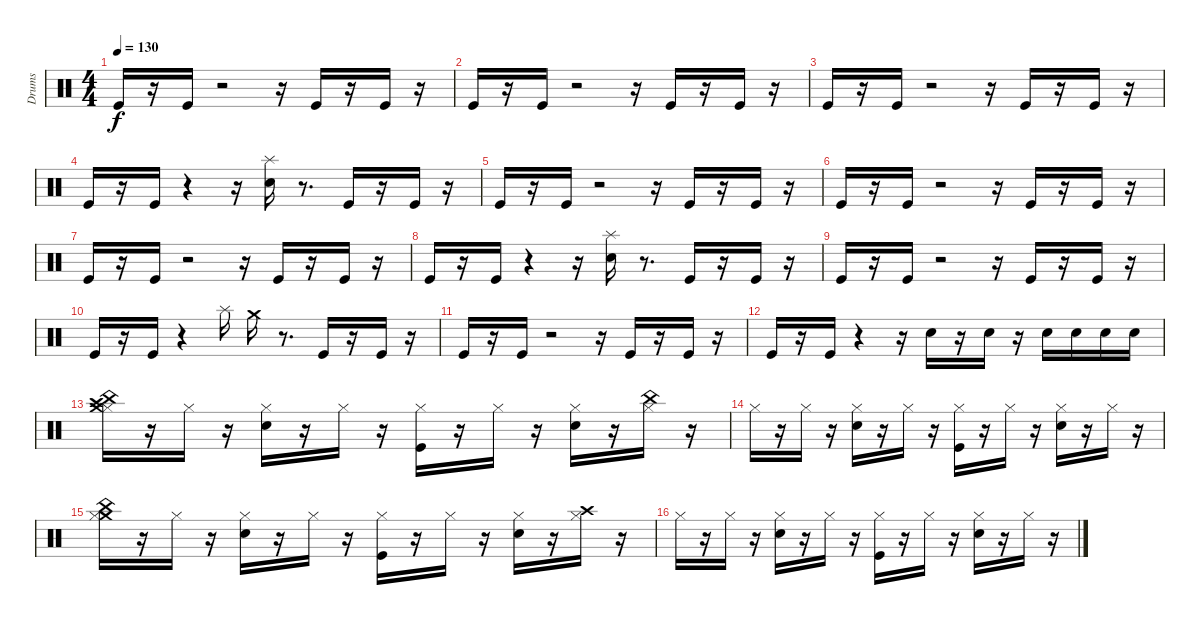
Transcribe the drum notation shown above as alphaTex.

\track ("Drums" "Drums") {instrument percussion}
\staff {score}
\articulation defaults
\ts (4 4)
\tempo 130
\clef neutral
\ks c "Kick (hit)".16{dy f}
r.16 "Kick (hit)".16 r.2 r.16 "Kick (hit)".16 r.16 "Kick (hit)".16 r.16 |
"Kick (hit)".16 r.16 "Kick (hit)".16 r.2 r.16 "Kick (hit)".16 r.16 "Kick (hit)".16 r.16 |
"Kick (hit)".16 r.16 "Kick (hit)".16 r.2 r.16 "Kick (hit)".16 r.16 "Kick (hit)".16 r.16 |
"Kick (hit)".16 r.16 "Kick (hit)".16 r.4 r.16 ("Electric Snare (hit)" "Splash (hit)").16 r.8{d} "Kick (hit)".16 r.16 "Kick (hit)".16 r.16 |
"Kick (hit)".16 r.16 "Kick (hit)".16 r.2 r.16 "Kick (hit)".16 r.16 "Kick (hit)".16 r.16 |
"Kick (hit)".16 r.16 "Kick (hit)".16 r.2 r.16 "Kick (hit)".16 r.16 "Kick (hit)".16 r.16 |
"Kick (hit)".16 r.16 "Kick (hit)".16 r.2 r.16 "Kick (hit)".16 r.16 "Kick (hit)".16 r.16 |
"Kick (hit)".16 r.16 "Kick (hit)".16 r.4 r.16 ("Electric Snare (hit)" "Splash (hit)").16 r.8{d} "Kick (hit)".16 r.16 "Kick (hit)".16 r.16 |
"Kick (hit)".16 r.16 "Kick (hit)".16 r.2 r.16 "Kick (hit)".16 r.16 "Kick (hit)".16 r.16 |
"Kick (hit)".16 r.16 "Kick (hit)".16 r.4 "Splash (hit)".16 "Crash medium (hit)".16 r.8{d} "Kick (hit)".16 r.16 "Kick (hit)".16 r.16 |
"Kick (hit)".16 r.16 "Kick (hit)".16 r.2 r.16 "Kick (hit)".16 r.16 "Kick (hit)".16 r.16 |
"Kick (hit)".16 r.16 "Kick (hit)".16 r.4 r.16 "Electric Snare (hit)".16 r.16 "Electric Snare (hit)".16 r.16 "Electric Snare (hit)".16 "Electric Snare (hit)".16 "Electric Snare (hit)".16 "Electric Snare (hit)".16 |
("Hi-Hat (closed)" "Crash high (hit)" "China (hit)" "Crash medium (hit)").16 r.16 "Hi-Hat (closed)".16 r.16 ("Snare (hit) 2" "Hi-Hat (closed)").16 r.16 "Hi-Hat (closed)".16 r.16 ("Kick (hit)" "Hi-Hat (closed)").16 r.16 "Hi-Hat (closed)".16 r.16 ("Snare (hit) 2" "Hi-Hat (closed)").16 r.16 ("China (hit)" "Hi-Hat (closed)").16 r.16 |
"Hi-Hat (closed)".16 r.16 "Hi-Hat (closed)".16 r.16 ("Snare (hit) 2" "Hi-Hat (closed)").16 r.16 "Hi-Hat (closed)".16 r.16 ("Kick (hit)" "Hi-Hat (closed)").16 r.16 "Hi-Hat (closed)".16 r.16 ("Snare (hit) 2" "Hi-Hat (closed)").16 r.16 "Hi-Hat (closed)".16 r.16 |
("China (hit)" "Crash medium (hit)" "Hi-Hat (closed)").16 r.16 "Hi-Hat (closed)".16 r.16 ("Snare (hit) 2" "Hi-Hat (closed)").16 r.16 "Hi-Hat (closed)".16 r.16 ("Kick (hit)" "Hi-Hat (closed)").16 r.16 "Hi-Hat (closed)".16 r.16 ("Snare (hit) 2" "Hi-Hat (closed)").16 r.16 ("Crash high (hit)" "Hi-Hat (closed)").16 r.16 |
"Hi-Hat (closed)".16 r.16 "Hi-Hat (closed)".16 r.16 ("Snare (hit) 2" "Hi-Hat (closed)").16 r.16 "Hi-Hat (closed)".16 r.16 ("Kick (hit)" "Hi-Hat (closed)").16 r.16 "Hi-Hat (closed)".16 r.16 ("Snare (hit) 2" "Hi-Hat (closed)").16 r.16 "Hi-Hat (closed)".16 r.16
